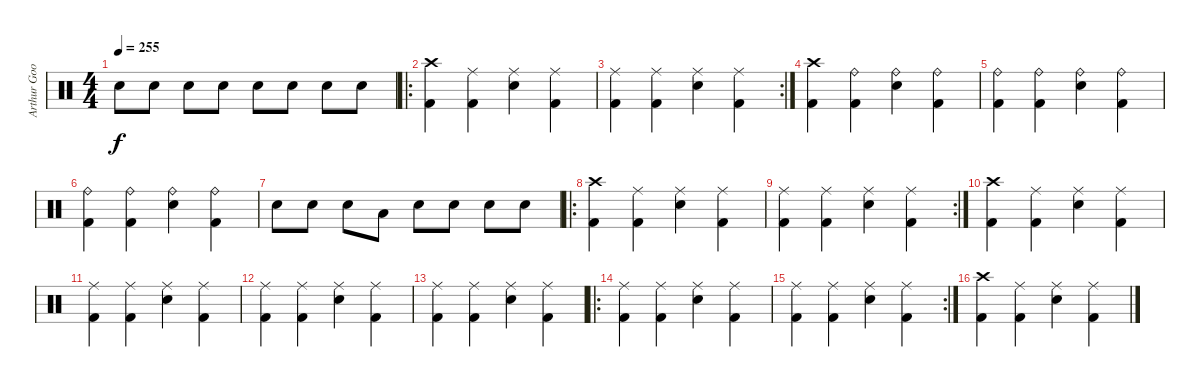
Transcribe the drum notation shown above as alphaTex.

\track ("Arthur Googy" "Arthur Goo") {instrument percussion}
\staff {score}
\articulation defaults
\ts (4 4)
\tempo 255
\clef neutral
\ks c "Electric Snare (hit)".8{dy f} "Electric Snare (hit)".8 "Electric Snare (hit)".8 "Electric Snare (hit)".8 "Electric Snare (hit)".8 "Electric Snare (hit)".8 "Electric Snare (hit)".8 "Electric Snare (hit)".8
|
\ro
("Crash high (hit)" "Kick (hit) 2").4 ("Ride (middle)" "Kick (hit) 2").4 ("Ride (middle)" "Electric Snare (hit)").4 ("Ride (middle)" "Kick (hit) 2").4 |
\rc 2
("Ride (middle)" "Kick (hit) 2").4 ("Ride (middle)" "Kick (hit) 2").4 ("Ride (middle)" "Electric Snare (hit)").4 ("Ride (middle)" "Kick (hit) 2").4 |
("Crash high (hit)" "Kick (hit) 2").4 ("Ride (bell)" "Kick (hit) 2").4 ("Ride (bell)" "Electric Snare (hit)").4 ("Ride (bell)" "Kick (hit) 2").4 |
("Ride (bell)" "Kick (hit) 2").4 ("Ride (bell)" "Kick (hit) 2").4 ("Ride (bell)" "Electric Snare (hit)").4 ("Ride (bell)" "Kick (hit) 2").4 |
("Ride (bell)" "Kick (hit) 2").4 ("Ride (bell)" "Kick (hit) 2").4 ("Ride (bell)" "Electric Snare (hit)").4 ("Ride (bell)" "Kick (hit) 2").4 |
"Electric Snare (hit)".8 "Electric Snare (hit)".8 "Electric Snare (hit)".8 "Low Tom (hit)".8 "Electric Snare (hit)".8 "Electric Snare (hit)".8 "Electric Snare (hit)".8 "Electric Snare (hit)".8 |
\ro
("Crash high (hit)" "Kick (hit) 2").4 ("Ride (middle)" "Kick (hit) 2").4 ("Ride (middle)" "Electric Snare (hit)").4 ("Ride (middle)" "Kick (hit) 2").4 |
\rc 2
("Ride (middle)" "Kick (hit) 2").4 ("Ride (middle)" "Kick (hit) 2").4 ("Ride (middle)" "Electric Snare (hit)").4 ("Ride (middle)" "Kick (hit) 2").4 |
("Crash high (hit)" "Kick (hit) 2").4 ("Ride (middle)" "Kick (hit) 2").4 ("Ride (middle)" "Electric Snare (hit)").4 ("Ride (middle)" "Kick (hit) 2").4 |
("Ride (middle)" "Kick (hit) 2").4 ("Ride (middle)" "Kick (hit) 2").4 ("Ride (middle)" "Electric Snare (hit)").4 ("Ride (middle)" "Kick (hit) 2").4 |
("Ride (middle)" "Kick (hit) 2").4 ("Ride (middle)" "Kick (hit) 2").4 ("Ride (middle)" "Electric Snare (hit)").4 ("Ride (middle)" "Kick (hit) 2").4 |
("Ride (middle)" "Kick (hit) 2").4 ("Ride (middle)" "Kick (hit) 2").4 ("Ride (middle)" "Electric Snare (hit)").4 ("Ride (middle)" "Kick (hit) 2").4 |
\ro
("Ride (middle)" "Kick (hit) 2").4 ("Ride (middle)" "Kick (hit) 2").4 ("Ride (middle)" "Electric Snare (hit)").4 ("Ride (middle)" "Kick (hit) 2").4 |
\rc 2
("Ride (middle)" "Kick (hit) 2").4 ("Ride (middle)" "Kick (hit) 2").4 ("Ride (middle)" "Electric Snare (hit)").4 ("Ride (middle)" "Kick (hit) 2").4 |
("Crash high (hit)" "Kick (hit) 2").4 ("Ride (middle)" "Kick (hit) 2").4 ("Ride (middle)" "Electric Snare (hit)").4 ("Ride (middle)" "Kick (hit) 2").4
